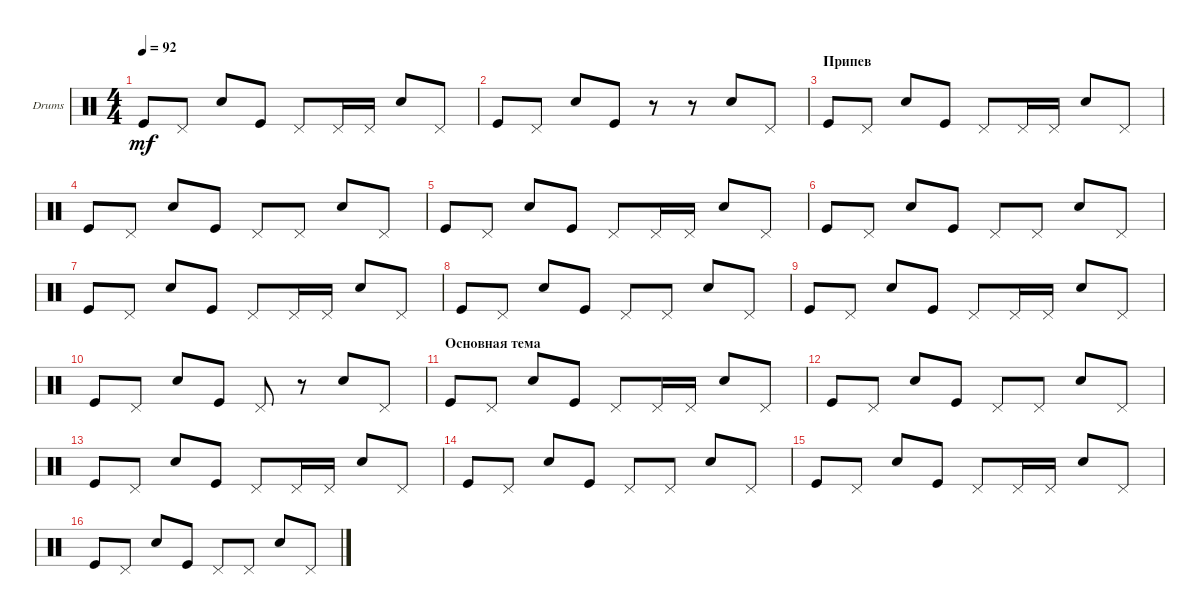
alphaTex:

\defaultSystemsLayout 4
\bracketExtendMode groupsimilarinstruments
\firstSystemTrackNameOrientation horizontal
\otherSystemsTrackNameOrientation horizontal
\track ("Drumkit" "Drums") {instrument percussion}
\staff {score}
\articulation defaults
\ts (4 4)
\tempo 92
\clef neutral
\ks c "Kick (hit)".8{dy mf} "Pedal Hi-Hat (hit)".8 "Snare (hit) 2".8 "Kick (hit)".8 "Pedal Hi-Hat (hit)".8 "Pedal Hi-Hat (hit)".16 "Pedal Hi-Hat (hit)".16 "Snare (hit) 2".8 "Pedal Hi-Hat (hit)".8
|
"Kick (hit)".8 "Pedal Hi-Hat (hit)".8 "Snare (hit) 2".8 "Kick (hit)".8 r.8 r.8 "Snare (hit) 2".8 "Pedal Hi-Hat (hit)".8 |
\section ("" "Припев")
"Kick (hit)".8 "Pedal Hi-Hat (hit)".8 "Snare (hit) 2".8 "Kick (hit)".8 "Pedal Hi-Hat (hit)".8 "Pedal Hi-Hat (hit)".16 "Pedal Hi-Hat (hit)".16 "Snare (hit) 2".8 "Pedal Hi-Hat (hit)".8 |
"Kick (hit)".8 "Pedal Hi-Hat (hit)".8 "Snare (hit) 2".8 "Kick (hit)".8 "Pedal Hi-Hat (hit)".8 "Pedal Hi-Hat (hit)".8 "Snare (hit) 2".8 "Pedal Hi-Hat (hit)".8 |
"Kick (hit)".8 "Pedal Hi-Hat (hit)".8 "Snare (hit) 2".8 "Kick (hit)".8 "Pedal Hi-Hat (hit)".8 "Pedal Hi-Hat (hit)".16 "Pedal Hi-Hat (hit)".16 "Snare (hit) 2".8 "Pedal Hi-Hat (hit)".8 |
"Kick (hit)".8 "Pedal Hi-Hat (hit)".8 "Snare (hit) 2".8 "Kick (hit)".8 "Pedal Hi-Hat (hit)".8 "Pedal Hi-Hat (hit)".8 "Snare (hit) 2".8 "Pedal Hi-Hat (hit)".8 |
"Kick (hit)".8 "Pedal Hi-Hat (hit)".8 "Snare (hit) 2".8 "Kick (hit)".8 "Pedal Hi-Hat (hit)".8 "Pedal Hi-Hat (hit)".16 "Pedal Hi-Hat (hit)".16 "Snare (hit) 2".8 "Pedal Hi-Hat (hit)".8 |
"Kick (hit)".8 "Pedal Hi-Hat (hit)".8 "Snare (hit) 2".8 "Kick (hit)".8 "Pedal Hi-Hat (hit)".8 "Pedal Hi-Hat (hit)".8 "Snare (hit) 2".8 "Pedal Hi-Hat (hit)".8 |
"Kick (hit)".8 "Pedal Hi-Hat (hit)".8 "Snare (hit) 2".8 "Kick (hit)".8 "Pedal Hi-Hat (hit)".8 "Pedal Hi-Hat (hit)".16 "Pedal Hi-Hat (hit)".16 "Snare (hit) 2".8 "Pedal Hi-Hat (hit)".8 |
"Kick (hit)".8 "Pedal Hi-Hat (hit)".8 "Snare (hit) 2".8 "Kick (hit)".8 "Pedal Hi-Hat (hit)".8 r.8 "Snare (hit) 2".8 "Pedal Hi-Hat (hit)".8 |
\section ("" "Основная тема")
"Kick (hit)".8 "Pedal Hi-Hat (hit)".8 "Snare (hit) 2".8 "Kick (hit)".8 "Pedal Hi-Hat (hit)".8 "Pedal Hi-Hat (hit)".16 "Pedal Hi-Hat (hit)".16 "Snare (hit) 2".8 "Pedal Hi-Hat (hit)".8 |
"Kick (hit)".8 "Pedal Hi-Hat (hit)".8 "Snare (hit) 2".8 "Kick (hit)".8 "Pedal Hi-Hat (hit)".8 "Pedal Hi-Hat (hit)".8 "Snare (hit) 2".8 "Pedal Hi-Hat (hit)".8 |
"Kick (hit)".8 "Pedal Hi-Hat (hit)".8 "Snare (hit) 2".8 "Kick (hit)".8 "Pedal Hi-Hat (hit)".8 "Pedal Hi-Hat (hit)".16 "Pedal Hi-Hat (hit)".16 "Snare (hit) 2".8 "Pedal Hi-Hat (hit)".8 |
"Kick (hit)".8 "Pedal Hi-Hat (hit)".8 "Snare (hit) 2".8 "Kick (hit)".8 "Pedal Hi-Hat (hit)".8 "Pedal Hi-Hat (hit)".8 "Snare (hit) 2".8 "Pedal Hi-Hat (hit)".8 |
"Kick (hit)".8 "Pedal Hi-Hat (hit)".8 "Snare (hit) 2".8 "Kick (hit)".8 "Pedal Hi-Hat (hit)".8 "Pedal Hi-Hat (hit)".16 "Pedal Hi-Hat (hit)".16 "Snare (hit) 2".8 "Pedal Hi-Hat (hit)".8 |
"Kick (hit)".8 "Pedal Hi-Hat (hit)".8 "Snare (hit) 2".8 "Kick (hit)".8 "Pedal Hi-Hat (hit)".8 "Pedal Hi-Hat (hit)".8 "Snare (hit) 2".8 "Pedal Hi-Hat (hit)".8
